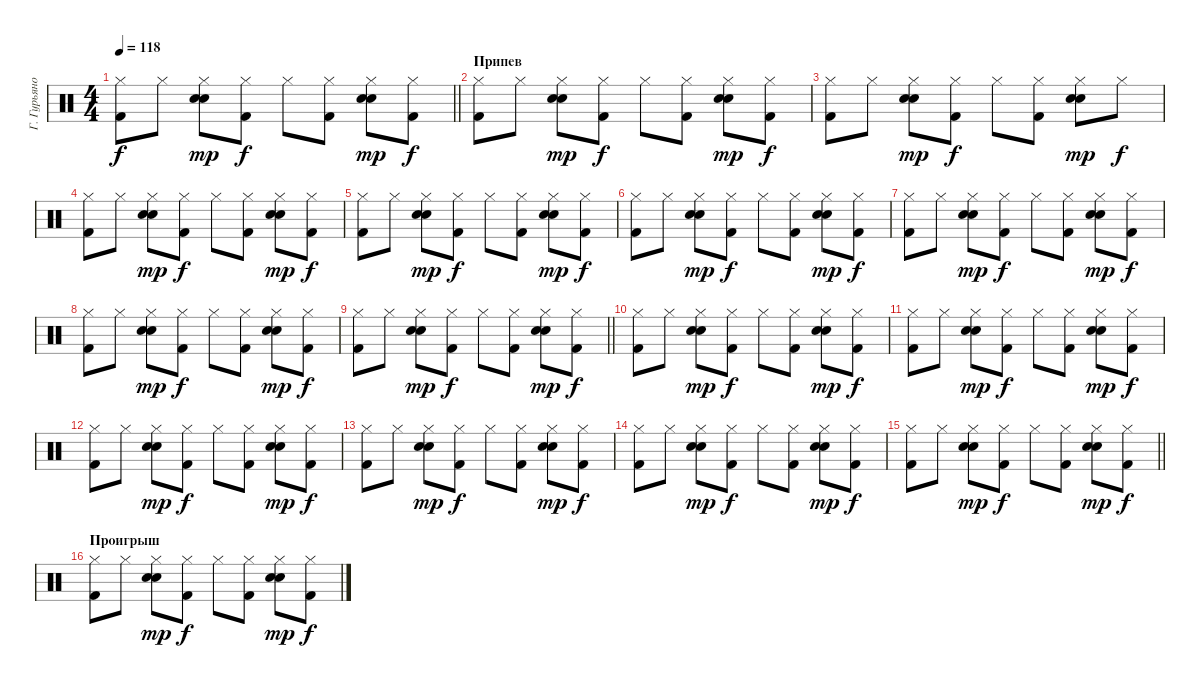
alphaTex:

\track ("Г. Гурьянов" "Г. Гурьяно") {instrument percussion}
\staff
\articulation defaults
\ts (4 4)
\tempo 118
\clef neutral
\barLineRight lightlight
\ks c
("Hi-Hat (closed)" "Kick (hit) 2").8{dy f} "Hi-Hat (closed)".8 ("Hi-Hat (closed)" "Electric Snare (hit)" "Snare (hit) 2").8{dy mp} ("Hi-Hat (closed)" "Kick (hit) 2").8{dy f} "Hi-Hat (closed)".8 ("Hi-Hat (closed)" "Kick (hit) 2").8 ("Hi-Hat (closed)" "Electric Snare (hit)" "Snare (hit) 2").8{dy mp} ("Hi-Hat (closed)" "Kick (hit) 2").8{dy f} |
\section ("" "Припев")
("Hi-Hat (closed)" "Kick (hit) 2").8 "Hi-Hat (closed)".8 ("Hi-Hat (closed)" "Electric Snare (hit)" "Snare (hit) 2").8{dy mp} ("Hi-Hat (closed)" "Kick (hit) 2").8{dy f} "Hi-Hat (closed)".8 ("Hi-Hat (closed)" "Kick (hit) 2").8 ("Hi-Hat (closed)" "Electric Snare (hit)" "Snare (hit) 2").8{dy mp} ("Hi-Hat (closed)" "Kick (hit) 2").8{dy f} |
("Hi-Hat (closed)" "Kick (hit) 2").8 "Hi-Hat (closed)".8 ("Hi-Hat (closed)" "Electric Snare (hit)" "Snare (hit) 2").8{dy mp} ("Hi-Hat (closed)" "Kick (hit) 2").8{dy f} "Hi-Hat (closed)".8 ("Hi-Hat (closed)" "Kick (hit) 2").8 ("Hi-Hat (closed)" "Electric Snare (hit)" "Snare (hit) 2").8{dy mp} "Hi-Hat (closed)".8{dy f} |
("Hi-Hat (closed)" "Kick (hit) 2").8 "Hi-Hat (closed)".8 ("Hi-Hat (closed)" "Electric Snare (hit)" "Snare (hit) 2").8{dy mp} ("Hi-Hat (closed)" "Kick (hit) 2").8{dy f} "Hi-Hat (closed)".8 ("Hi-Hat (closed)" "Kick (hit) 2").8 ("Hi-Hat (closed)" "Electric Snare (hit)" "Snare (hit) 2").8{dy mp} ("Hi-Hat (closed)" "Kick (hit) 2").8{dy f} |
("Hi-Hat (closed)" "Kick (hit) 2").8 "Hi-Hat (closed)".8 ("Hi-Hat (closed)" "Electric Snare (hit)" "Snare (hit) 2").8{dy mp} ("Hi-Hat (closed)" "Kick (hit) 2").8{dy f} "Hi-Hat (closed)".8 ("Hi-Hat (closed)" "Kick (hit) 2").8 ("Hi-Hat (closed)" "Electric Snare (hit)" "Snare (hit) 2").8{dy mp} ("Hi-Hat (closed)" "Kick (hit) 2").8{dy f} |
("Hi-Hat (closed)" "Kick (hit) 2").8 "Hi-Hat (closed)".8 ("Hi-Hat (closed)" "Electric Snare (hit)" "Snare (hit) 2").8{dy mp} ("Hi-Hat (closed)" "Kick (hit) 2").8{dy f} "Hi-Hat (closed)".8 ("Hi-Hat (closed)" "Kick (hit) 2").8 ("Hi-Hat (closed)" "Electric Snare (hit)" "Snare (hit) 2").8{dy mp} ("Hi-Hat (closed)" "Kick (hit) 2").8{dy f} |
("Hi-Hat (closed)" "Kick (hit) 2").8 "Hi-Hat (closed)".8 ("Hi-Hat (closed)" "Electric Snare (hit)" "Snare (hit) 2").8{dy mp} ("Hi-Hat (closed)" "Kick (hit) 2").8{dy f} "Hi-Hat (closed)".8 ("Hi-Hat (closed)" "Kick (hit) 2").8 ("Hi-Hat (closed)" "Electric Snare (hit)" "Snare (hit) 2").8{dy mp} ("Hi-Hat (closed)" "Kick (hit) 2").8{dy f} |
("Hi-Hat (closed)" "Kick (hit) 2").8 "Hi-Hat (closed)".8 ("Hi-Hat (closed)" "Electric Snare (hit)" "Snare (hit) 2").8{dy mp} ("Hi-Hat (closed)" "Kick (hit) 2").8{dy f} "Hi-Hat (closed)".8 ("Hi-Hat (closed)" "Kick (hit) 2").8 ("Hi-Hat (closed)" "Electric Snare (hit)" "Snare (hit) 2").8{dy mp} ("Hi-Hat (closed)" "Kick (hit) 2").8{dy f} |
\barLineRight lightlight
("Hi-Hat (closed)" "Kick (hit) 2").8 "Hi-Hat (closed)".8 ("Hi-Hat (closed)" "Electric Snare (hit)" "Snare (hit) 2").8{dy mp} ("Hi-Hat (closed)" "Kick (hit) 2").8{dy f} "Hi-Hat (closed)".8 ("Hi-Hat (closed)" "Kick (hit) 2").8 ("Hi-Hat (closed)" "Electric Snare (hit)" "Snare (hit) 2").8{dy mp} ("Hi-Hat (closed)" "Kick (hit) 2").8{dy f} |
("Hi-Hat (closed)" "Kick (hit) 2").8 "Hi-Hat (closed)".8 ("Hi-Hat (closed)" "Electric Snare (hit)" "Snare (hit) 2").8{dy mp} ("Hi-Hat (closed)" "Kick (hit) 2").8{dy f} "Hi-Hat (closed)".8 ("Hi-Hat (closed)" "Kick (hit) 2").8 ("Hi-Hat (closed)" "Electric Snare (hit)" "Snare (hit) 2").8{dy mp} ("Hi-Hat (closed)" "Kick (hit) 2").8{dy f} |
("Hi-Hat (closed)" "Kick (hit) 2").8 "Hi-Hat (closed)".8 ("Hi-Hat (closed)" "Electric Snare (hit)" "Snare (hit) 2").8{dy mp} ("Hi-Hat (closed)" "Kick (hit) 2").8{dy f} "Hi-Hat (closed)".8 ("Hi-Hat (closed)" "Kick (hit) 2").8 ("Hi-Hat (closed)" "Electric Snare (hit)" "Snare (hit) 2").8{dy mp} ("Hi-Hat (closed)" "Kick (hit) 2").8{dy f} |
("Hi-Hat (closed)" "Kick (hit) 2").8 "Hi-Hat (closed)".8 ("Hi-Hat (closed)" "Electric Snare (hit)" "Snare (hit) 2").8{dy mp} ("Hi-Hat (closed)" "Kick (hit) 2").8{dy f} "Hi-Hat (closed)".8 ("Hi-Hat (closed)" "Kick (hit) 2").8 ("Hi-Hat (closed)" "Electric Snare (hit)" "Snare (hit) 2").8{dy mp} ("Hi-Hat (closed)" "Kick (hit) 2").8{dy f} |
("Hi-Hat (closed)" "Kick (hit) 2").8 "Hi-Hat (closed)".8 ("Hi-Hat (closed)" "Electric Snare (hit)" "Snare (hit) 2").8{dy mp} ("Hi-Hat (closed)" "Kick (hit) 2").8{dy f} "Hi-Hat (closed)".8 ("Hi-Hat (closed)" "Kick (hit) 2").8 ("Hi-Hat (closed)" "Electric Snare (hit)" "Snare (hit) 2").8{dy mp} ("Hi-Hat (closed)" "Kick (hit) 2").8{dy f} |
("Hi-Hat (closed)" "Kick (hit) 2").8 "Hi-Hat (closed)".8 ("Hi-Hat (closed)" "Electric Snare (hit)" "Snare (hit) 2").8{dy mp} ("Hi-Hat (closed)" "Kick (hit) 2").8{dy f} "Hi-Hat (closed)".8 ("Hi-Hat (closed)" "Kick (hit) 2").8 ("Hi-Hat (closed)" "Electric Snare (hit)" "Snare (hit) 2").8{dy mp} ("Hi-Hat (closed)" "Kick (hit) 2").8{dy f} |
\barLineRight lightlight
("Hi-Hat (closed)" "Kick (hit) 2").8 "Hi-Hat (closed)".8 ("Hi-Hat (closed)" "Electric Snare (hit)" "Snare (hit) 2").8{dy mp} ("Hi-Hat (closed)" "Kick (hit) 2").8{dy f} "Hi-Hat (closed)".8 ("Hi-Hat (closed)" "Kick (hit) 2").8 ("Hi-Hat (closed)" "Electric Snare (hit)" "Snare (hit) 2").8{dy mp} ("Hi-Hat (closed)" "Kick (hit) 2").8{dy f} |
\section ("" "Проигрыш")
("Hi-Hat (closed)" "Kick (hit) 2").8 "Hi-Hat (closed)".8 ("Hi-Hat (closed)" "Electric Snare (hit)" "Snare (hit) 2").8{dy mp} ("Hi-Hat (closed)" "Kick (hit) 2").8{dy f} "Hi-Hat (closed)".8 ("Hi-Hat (closed)" "Kick (hit) 2").8 ("Hi-Hat (closed)" "Electric Snare (hit)" "Snare (hit) 2").8{dy mp} ("Hi-Hat (closed)" "Kick (hit) 2").8{dy f}
